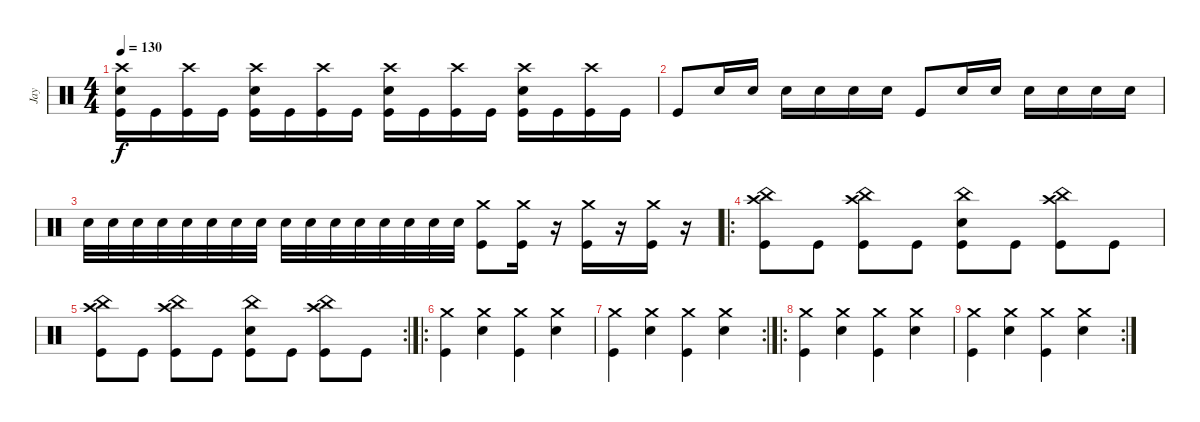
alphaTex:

\track ("Jay" "Jay") {instrument percussion}
\staff {score}
\articulation defaults
\ts (4 4)
\tempo 130
\clef neutral
\ks c
("Crash high (hit)" "Snare (hit) 2" "Kick (hit)").16{dy f} "Kick (hit)".16 ("Crash high (hit)" "Kick (hit)").16 "Kick (hit)".16 ("Crash high (hit)" "Snare (hit) 2" "Kick (hit)").16 "Kick (hit)".16 ("Crash high (hit)" "Kick (hit)").16 "Kick (hit)".16 ("Crash high (hit)" "Snare (hit) 2" "Kick (hit)").16 "Kick (hit)".16 ("Crash high (hit)" "Kick (hit)").16 "Kick (hit)".16 ("Crash high (hit)" "Snare (hit) 2" "Kick (hit)").16 "Kick (hit)".16 ("Crash high (hit)" "Kick (hit)").16 "Kick (hit)".16 |
"Kick (hit)".8 "Snare (hit) 2".16 "Snare (hit) 2".16 "Snare (hit) 2".16 "Snare (hit) 2".16 "Snare (hit) 2".16 "Snare (hit) 2".16 "Kick (hit)".8 "Snare (hit) 2".16 "Snare (hit) 2".16 "Snare (hit) 2".16 "Snare (hit) 2".16 "Snare (hit) 2".16 "Snare (hit) 2".16 |
"Snare (hit) 2".32 "Snare (hit) 2".32 "Snare (hit) 2".32 "Snare (hit) 2".32 "Snare (hit) 2".32 "Snare (hit) 2".32 "Snare (hit) 2".32 "Snare (hit) 2".32 "Snare (hit) 2".32 "Snare (hit) 2".32 "Snare (hit) 2".32 "Snare (hit) 2".32 "Snare (hit) 2".32 "Snare (hit) 2".32 "Snare (hit) 2".32 "Snare (hit) 2".32 ("Crash medium (hit)" "Kick (hit)").8 ("Crash medium (hit)" "Kick (hit)").16 r.16 ("Crash medium (hit)" "Kick (hit)").16 r.16 ("Crash medium (hit)" "Kick (hit)").16 r.16 |
\ro
("Crash high (hit)" "China (hit)" "Kick (hit)").8 "Kick (hit)".8 ("Crash high (hit)" "China (hit)" "Kick (hit)").8 "Kick (hit)".8 ("China (hit)" "Snare (hit) 2" "Kick (hit)").8 "Kick (hit)".8 ("Crash high (hit)" "China (hit)" "Kick (hit)").8 "Kick (hit)".8 |
\rc 2
("Crash high (hit)" "China (hit)" "Kick (hit)").8 "Kick (hit)".8 ("Crash high (hit)" "China (hit)" "Kick (hit)").8 "Kick (hit)".8 ("China (hit)" "Snare (hit) 2" "Kick (hit)").8 "Kick (hit)".8 ("Crash high (hit)" "China (hit)" "Kick (hit)").8 "Kick (hit)".8 |
\ro
("Crash medium (hit)" "Kick (hit)").4 ("Crash medium (hit)" "Snare (hit) 2").4 ("Crash medium (hit)" "Kick (hit)").4 ("Crash medium (hit)" "Snare (hit) 2").4 |
\rc 2
("Crash medium (hit)" "Kick (hit)").4 ("Crash medium (hit)" "Snare (hit) 2").4 ("Crash medium (hit)" "Kick (hit)").4 ("Crash medium (hit)" "Snare (hit) 2").4 |
\ro
("Crash medium (hit)" "Kick (hit)").4 ("Crash medium (hit)" "Snare (hit) 2").4 ("Crash medium (hit)" "Kick (hit)").4 ("Crash medium (hit)" "Snare (hit) 2").4 |
\rc 2
("Crash medium (hit)" "Kick (hit)").4 ("Crash medium (hit)" "Snare (hit) 2").4 ("Crash medium (hit)" "Kick (hit)").4 ("Crash medium (hit)" "Snare (hit) 2").4
